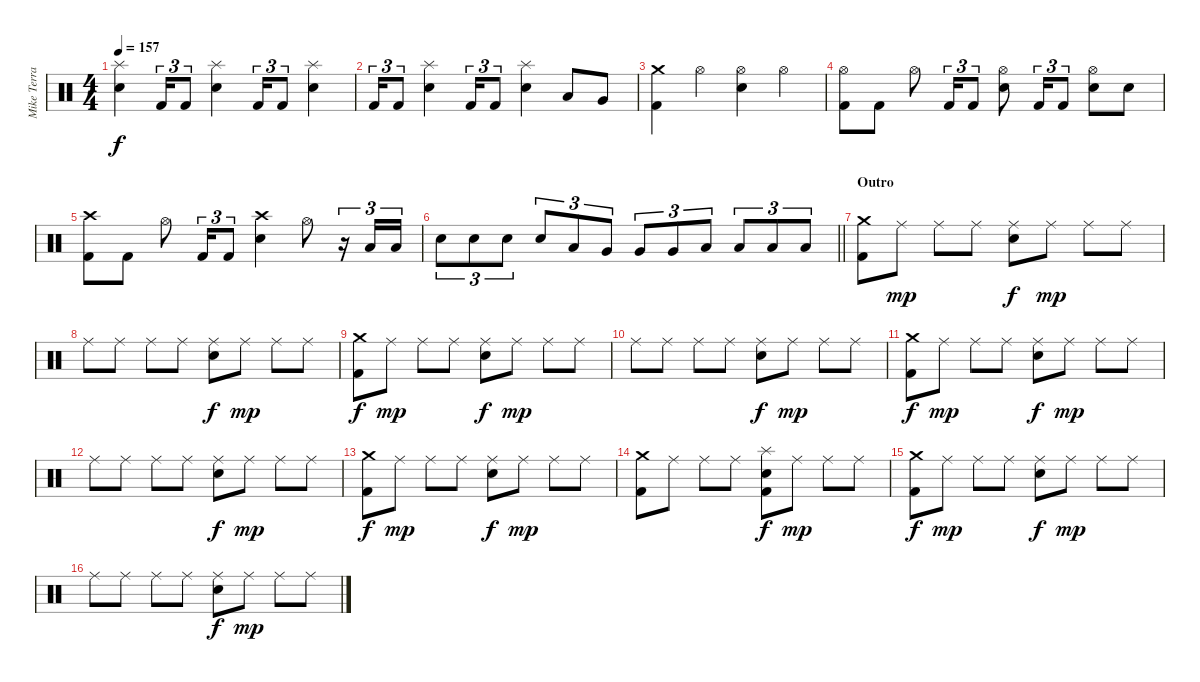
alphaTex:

\track ("Mike Terrana" "Mike Terra") {instrument percussion}
\staff {score}
\articulation defaults
\ts (4 4)
\tempo 157
\clef neutral
\ks c
("Splash (hit)" "Snare (hit) 2").4{dy f} "Kick (hit) 2".16{tu (3 2)} "Kick (hit) 2".8{tu (3 2)} ("Splash (hit)" "Snare (hit) 2").4 "Kick (hit) 2".16{tu (3 2)} "Kick (hit) 2".8{tu (3 2)} ("Splash (hit)" "Snare (hit) 2").4 |
"Kick (hit) 2".16{tu (3 2)} "Kick (hit) 2".8{tu (3 2)} ("Splash (hit)" "Snare (hit) 2").4 "Kick (hit) 2".16{tu (3 2)} "Kick (hit) 2".8{tu (3 2)} ("Splash (hit)" "Snare (hit) 2").4 "Low Tom (hit)".8 "Very Low Tom (hit)".8 |
("Crash medium (hit)" "Kick (hit) 2").4 "Hi-Hat (open)".4 ("Hi-Hat (open)" "Snare (hit) 2").4 "Hi-Hat (open)".4 |
("Hi-Hat (open)" "Kick (hit) 2").8 "Kick (hit) 2".8 "Hi-Hat (open)".8 "Kick (hit) 2".16{tu (3 2)} "Kick (hit) 2".8{tu (3 2)} ("Hi-Hat (open)" "Snare (hit) 2").8 "Kick (hit) 2".16{tu (3 2)} "Kick (hit) 2".8{tu (3 2)} ("Hi-Hat (open)" "Snare (hit) 2").8 "Snare (hit) 2".8 |
("Crash high (hit)" "Kick (hit) 2").8 "Kick (hit) 2".8 "Hi-Hat (open)".8 "Kick (hit) 2".16{tu (3 2)} "Kick (hit) 2".8{tu (3 2)} ("Crash high (hit)" "Snare (hit) 2").4 "Hi-Hat (open)".8 r.16{tu (3 2)} "Low Tom (hit)".16{tu (3 2)} "Low Tom (hit)".16{tu (3 2)} |
\barLineRight lightlight "Snare (hit) 2".8{tu (3 2)} "Snare (hit) 2".8{tu (3 2)} "Snare (hit) 2".8{tu (3 2)} "Snare (hit) 2".8{tu (3 2)} "Low Tom (hit)".8{tu (3 2)} "Very Low Tom (hit)".8{tu (3 2)} "Very Low Tom (hit)".8{tu (3 2)} "Very Low Tom (hit)".8{tu (3 2)} "Low Floor Tom (hit)".8{tu (3 2)} "Low Floor Tom (hit)".8{tu (3 2)} "Low Floor Tom (hit)".8{tu (3 2)} "Low Floor Tom (hit)".8{tu (3 2)}
|
\section ("" "Outro")
("Crash medium (hit)" "Kick (hit) 2").8 "Ride (middle)".8{dy mp} "Ride (middle)".8 "Ride (middle)".8 ("Ride (middle)" "Snare (hit) 2").8{dy f} "Ride (middle)".8{dy mp} "Ride (middle)".8 "Ride (middle)".8 |
"Ride (middle)".8 "Ride (middle)".8 "Ride (middle)".8 "Ride (middle)".8 ("Ride (middle)" "Snare (hit) 2").8{dy f} "Ride (middle)".8{dy mp} "Ride (middle)".8 "Ride (middle)".8 |
("Crash medium (hit)" "Kick (hit) 2").8{dy f} "Ride (middle)".8{dy mp} "Ride (middle)".8 "Ride (middle)".8 ("Ride (middle)" "Snare (hit) 2").8{dy f} "Ride (middle)".8{dy mp} "Ride (middle)".8 "Ride (middle)".8 |
"Ride (middle)".8 "Ride (middle)".8 "Ride (middle)".8 "Ride (middle)".8 ("Ride (middle)" "Snare (hit) 2").8{dy f} "Ride (middle)".8{dy mp} "Ride (middle)".8 "Ride (middle)".8 |
("Crash medium (hit)" "Kick (hit) 2").8{dy f} "Ride (middle)".8{dy mp} "Ride (middle)".8 "Ride (middle)".8 ("Ride (middle)" "Snare (hit) 2").8{dy f} "Ride (middle)".8{dy mp} "Ride (middle)".8 "Ride (middle)".8 |
"Ride (middle)".8 "Ride (middle)".8 "Ride (middle)".8 "Ride (middle)".8 ("Ride (middle)" "Snare (hit) 2").8{dy f} "Ride (middle)".8{dy mp} "Ride (middle)".8 "Ride (middle)".8 |
("Crash medium (hit)" "Kick (hit) 2").8{dy f} "Ride (middle)".8{dy mp} "Ride (middle)".8 "Ride (middle)".8 ("Ride (middle)" "Snare (hit) 2").8{dy f} "Ride (middle)".8{dy mp} "Ride (middle)".8 "Ride (middle)".8 |
("Crash medium (hit)" "Kick (hit) 2").8 "Ride (middle)".8 "Ride (middle)".8 "Ride (middle)".8 ("Splash (hit)" "Snare (hit) 2" "Kick (hit) 2").8{dy f} "Ride (middle)".8{dy mp} "Ride (middle)".8 "Ride (middle)".8 |
("Crash medium (hit)" "Kick (hit) 2").8{dy f} "Ride (middle)".8{dy mp} "Ride (middle)".8 "Ride (middle)".8 ("Ride (middle)" "Snare (hit) 2").8{dy f} "Ride (middle)".8{dy mp} "Ride (middle)".8 "Ride (middle)".8 |
"Ride (middle)".8 "Ride (middle)".8 "Ride (middle)".8 "Ride (middle)".8 ("Ride (middle)" "Snare (hit) 2").8{dy f} "Ride (middle)".8{dy mp} "Ride (middle)".8 "Ride (middle)".8
